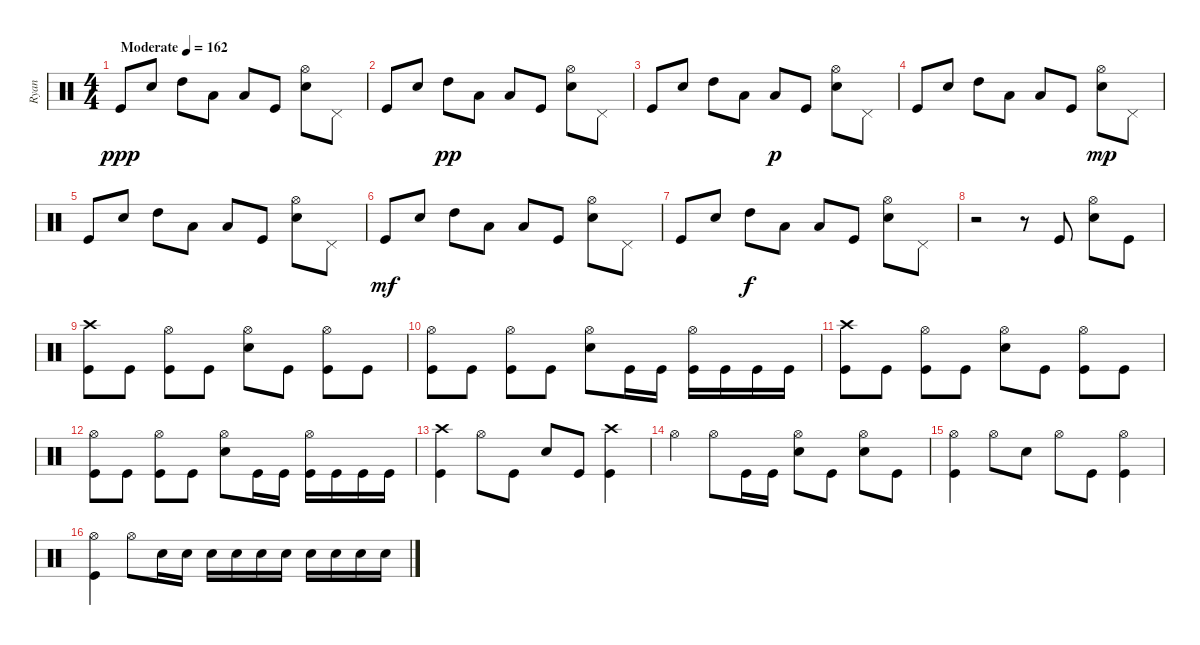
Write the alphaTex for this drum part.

\track ("Ryan" "Ryan") {instrument percussion}
\staff {score}
\articulation defaults
\ts (4 4)
\tempo (162 "Moderate")
\clef neutral
\ks c "Kick (hit)".8{dy ppp} "Electric Snare (hit)".8 "High Tom (hit)".8 "Low Tom (hit)".8 "Low Floor Tom (hit)".8 "Kick (hit)".8
("Hi-Hat (open)" "Electric Snare (hit)").8 "Pedal Hi-Hat (hit)".8 |
"Kick (hit)".8 "Electric Snare (hit)".8 "High Tom (hit)".8{dy pp} "Low Tom (hit)".8 "Low Floor Tom (hit)".8 "Kick (hit)".8 ("Hi-Hat (open)" "Electric Snare (hit)").8 "Pedal Hi-Hat (hit)".8 |
"Kick (hit)".8 "Electric Snare (hit)".8 "High Tom (hit)".8 "Low Tom (hit)".8 "Low Floor Tom (hit)".8{dy p} "Kick (hit)".8 ("Hi-Hat (open)" "Electric Snare (hit)").8 "Pedal Hi-Hat (hit)".8 |
"Kick (hit)".8 "Electric Snare (hit)".8 "High Tom (hit)".8 "Low Tom (hit)".8 "Low Floor Tom (hit)".8 "Kick (hit)".8 ("Hi-Hat (open)" "Electric Snare (hit)").8{dy mp} "Pedal Hi-Hat (hit)".8 |
"Kick (hit)".8 "Electric Snare (hit)".8 "High Tom (hit)".8 "Low Tom (hit)".8 "Low Floor Tom (hit)".8 "Kick (hit)".8 ("Hi-Hat (open)" "Electric Snare (hit)").8 "Pedal Hi-Hat (hit)".8 |
"Kick (hit)".8{dy mf} "Electric Snare (hit)".8 "High Tom (hit)".8 "Low Tom (hit)".8 "Low Floor Tom (hit)".8 "Kick (hit)".8 ("Hi-Hat (open)" "Electric Snare (hit)").8 "Pedal Hi-Hat (hit)".8 |
"Kick (hit)".8 "Electric Snare (hit)".8 "High Tom (hit)".8{dy f} "Low Tom (hit)".8 "Low Floor Tom (hit)".8 "Kick (hit)".8 ("Hi-Hat (open)" "Electric Snare (hit)").8 "Pedal Hi-Hat (hit)".8 |
r.2 r.8 "Kick (hit)".8 ("Hi-Hat (open)" "Electric Snare (hit)").8 "Kick (hit)".8 |
("Crash high (hit)" "Kick (hit)").8 "Kick (hit)".8 ("Hi-Hat (open)" "Kick (hit)").8 "Kick (hit)".8 ("Hi-Hat (open)" "Electric Snare (hit)").8 "Kick (hit)".8 ("Hi-Hat (open)" "Kick (hit)").8 "Kick (hit)".8 |
("Hi-Hat (open)" "Kick (hit)").8 "Kick (hit)".8 ("Hi-Hat (open)" "Kick (hit)").8 "Kick (hit)".8 ("Hi-Hat (open)" "Electric Snare (hit)").8 "Kick (hit)".16 "Kick (hit)".16 ("Hi-Hat (open)" "Kick (hit)").16 "Kick (hit)".16 "Kick (hit)".16 "Kick (hit)".16 |
("Crash high (hit)" "Kick (hit)").8 "Kick (hit)".8 ("Hi-Hat (open)" "Kick (hit)").8 "Kick (hit)".8 ("Hi-Hat (open)" "Electric Snare (hit)").8 "Kick (hit)".8 ("Hi-Hat (open)" "Kick (hit)").8 "Kick (hit)".8 |
("Hi-Hat (open)" "Kick (hit)").8 "Kick (hit)".8 ("Hi-Hat (open)" "Kick (hit)").8 "Kick (hit)".8 ("Hi-Hat (open)" "Electric Snare (hit)").8 "Kick (hit)".16 "Kick (hit)".16 ("Hi-Hat (open)" "Kick (hit)").16 "Kick (hit)".16 "Kick (hit)".16 "Kick (hit)".16 |
("Crash high (hit)" "Kick (hit)").4 "Hi-Hat (open)".8 "Kick (hit)".8 "Electric Snare (hit)".8 "Kick (hit)".8 ("Crash high (hit)" "Kick (hit)").4 |
"Hi-Hat (open)".4 "Hi-Hat (open)".8 "Kick (hit)".16 "Kick (hit)".16 ("Hi-Hat (open)" "Electric Snare (hit)").8 "Kick (hit)".8 ("Hi-Hat (open)" "Electric Snare (hit)").8 "Kick (hit)".8 |
("Hi-Hat (open)" "Kick (hit)").4 "Hi-Hat (open)".8 "Electric Snare (hit)".8 "Hi-Hat (open)".8 "Kick (hit)".8 ("Hi-Hat (open)" "Kick (hit)").4 |
("Hi-Hat (open)" "Kick (hit)").4 "Hi-Hat (open)".8 "Electric Snare (hit)".16 "Electric Snare (hit)".16 "Electric Snare (hit)".16 "Electric Snare (hit)".16 "Electric Snare (hit)".16 "Electric Snare (hit)".16 "Electric Snare (hit)".16 "Electric Snare (hit)".16 "Electric Snare (hit)".16 "Electric Snare (hit)".16
